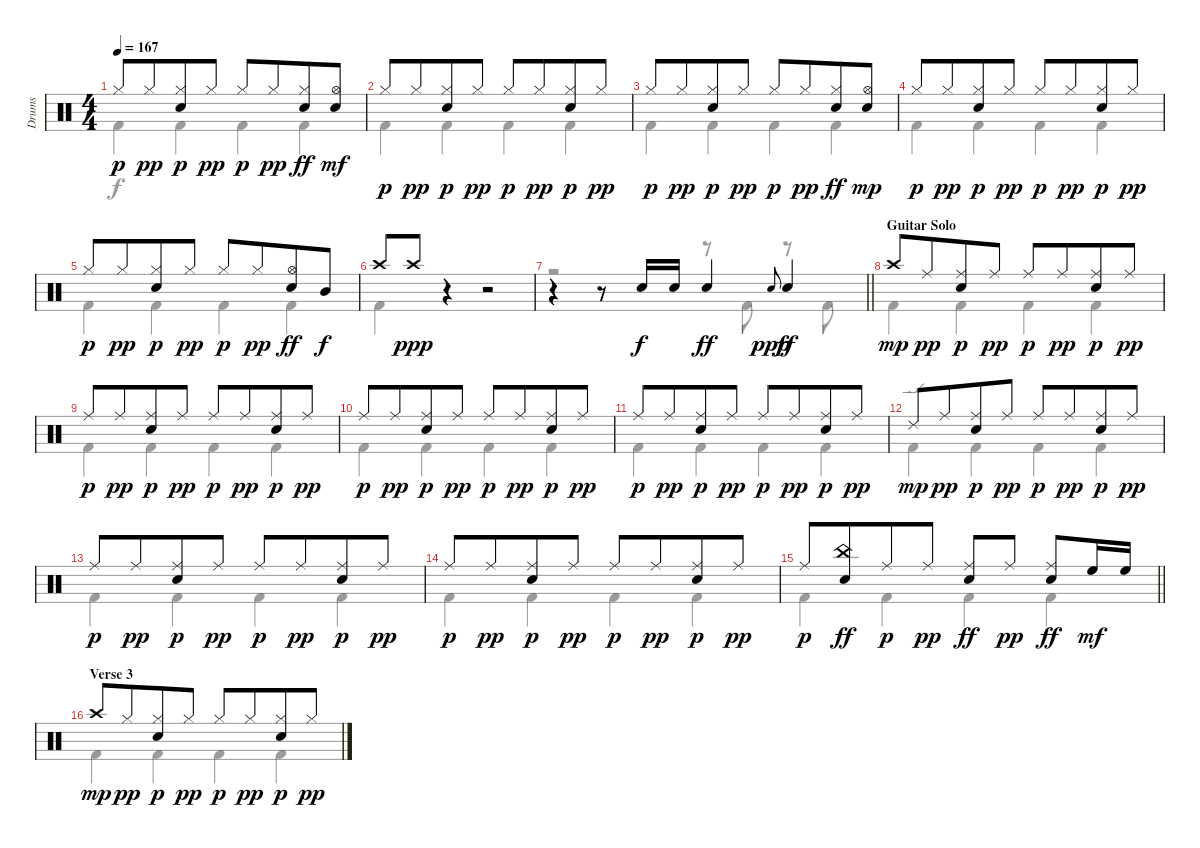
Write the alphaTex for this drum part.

\track ("Drums" "Drums") {instrument percussion}
\staff {score}
\articulation defaults
\voice
\ts (4 4)
\tempo 167
\clef neutral
\ks aminor "Hi-Hat (closed)".8{dy p} "Hi-Hat (closed)".8{dy pp beam merge}
("Hi-Hat (closed)" "Electric Snare (hit)").8{dy p} "Hi-Hat (closed)".8{dy pp} "Hi-Hat (closed)".8{dy p} "Hi-Hat (closed)".8{dy pp beam merge} ("Hi-Hat (closed)" "Electric Snare (hit)").8{dy ff} ("Hi-Hat (open)" "Electric Snare (hit)").8{dy mf} |
"Hi-Hat (closed)".8{dy p} "Hi-Hat (closed)".8{dy pp beam merge} ("Hi-Hat (closed)" "Electric Snare (hit)").8{dy p} "Hi-Hat (closed)".8{dy pp} "Hi-Hat (closed)".8{dy p} "Hi-Hat (closed)".8{dy pp beam merge} ("Hi-Hat (closed)" "Electric Snare (hit)").8{dy p} "Hi-Hat (closed)".8{dy pp} |
"Hi-Hat (closed)".8{dy p} "Hi-Hat (closed)".8{dy pp beam merge} ("Hi-Hat (closed)" "Electric Snare (hit)").8{dy p} "Hi-Hat (closed)".8{dy pp} "Hi-Hat (closed)".8{dy p} "Hi-Hat (closed)".8{dy pp beam merge} ("Hi-Hat (closed)" "Electric Snare (hit)").8{dy ff} ("Hi-Hat (open)" "Electric Snare (hit)").8{dy mp} |
"Hi-Hat (closed)".8{dy p} "Hi-Hat (closed)".8{dy pp beam merge} ("Hi-Hat (closed)" "Electric Snare (hit)").8{dy p} "Hi-Hat (closed)".8{dy pp} "Hi-Hat (closed)".8{dy p} "Hi-Hat (closed)".8{dy pp beam merge} ("Hi-Hat (closed)" "Electric Snare (hit)").8{dy p} "Hi-Hat (closed)".8{dy pp} |
"Hi-Hat (closed)".8{dy p} "Hi-Hat (closed)".8{dy pp beam merge} ("Hi-Hat (closed)" "Electric Snare (hit)").8{dy p} "Hi-Hat (closed)".8{dy pp} "Hi-Hat (closed)".8{dy p} "Hi-Hat (closed)".8{dy pp beam merge} ("Hi-Hat (open)" "Electric Snare (hit)").8{dy ff} "Mid Tom (hit)".8{dy f} |
"Crash high (hit)".8 "Crash high (hit)".8{dy ppp} r.4 r.2 |
\barLineRight lightlight
r.4 r.8 "Electric Snare (hit)".16{dy f} "Electric Snare (hit)".16 "Electric Snare (hit)".4{dy ff} "Electric Snare (hit)".8{gr onbeat dy ppp} "Electric Snare (hit)".4{dy ff} |
\section ("" "Guitar Solo")
"Crash high (hit)".8{dy mp} "Ride (middle)".8{dy pp beam merge} ("Ride (middle)" "Electric Snare (hit)").8{dy p} "Ride (middle)".8{dy pp} "Ride (middle)".8{dy p} "Ride (middle)".8{dy pp beam merge} ("Ride (middle)" "Electric Snare (hit)").8{dy p} "Ride (middle)".8{dy pp} |
"Ride (middle)".8{dy p} "Ride (middle)".8{dy pp beam merge} ("Ride (middle)" "Electric Snare (hit)").8{dy p} "Ride (middle)".8{dy pp} "Ride (middle)".8{dy p} "Ride (middle)".8{dy pp beam merge} ("Ride (middle)" "Electric Snare (hit)").8{dy p} "Ride (middle)".8{dy pp} |
"Ride (middle)".8{dy p} "Ride (middle)".8{dy pp beam merge} ("Ride (middle)" "Electric Snare (hit)").8{dy p} "Ride (middle)".8{dy pp} "Ride (middle)".8{dy p} "Ride (middle)".8{dy pp beam merge} ("Ride (middle)" "Electric Snare (hit)").8{dy p} "Ride (middle)".8{dy pp} |
"Ride (middle)".8{dy p} "Ride (middle)".8{dy pp beam merge} ("Ride (middle)" "Electric Snare (hit)").8{dy p} "Ride (middle)".8{dy pp} "Ride (middle)".8{dy p} "Ride (middle)".8{dy pp beam merge} ("Ride (middle)" "Electric Snare (hit)").8{dy p} "Ride (middle)".8{dy pp} |
"Ride (edge) 2".8{dy mp} "Ride (middle)".8{dy pp beam merge} ("Ride (middle)" "Electric Snare (hit)").8{dy p} "Ride (middle)".8{dy pp} "Ride (middle)".8{dy p} "Ride (middle)".8{dy pp beam merge} ("Ride (middle)" "Electric Snare (hit)").8{dy p} "Ride (middle)".8{dy pp} |
"Ride (middle)".8{dy p} "Ride (middle)".8{dy pp beam merge} ("Ride (middle)" "Electric Snare (hit)").8{dy p} "Ride (middle)".8{dy pp} "Ride (middle)".8{dy p} "Ride (middle)".8{dy pp beam merge} ("Ride (middle)" "Electric Snare (hit)").8{dy p} "Ride (middle)".8{dy pp} |
"Ride (middle)".8{dy p} "Ride (middle)".8{dy pp beam merge} ("Ride (middle)" "Electric Snare (hit)").8{dy p} "Ride (middle)".8{dy pp} "Ride (middle)".8{dy p} "Ride (middle)".8{dy pp beam merge} ("Ride (middle)" "Electric Snare (hit)").8{dy p} "Ride (middle)".8{dy pp} |
\barLineRight lightlight "Ride (middle)".8{dy p}
("China (hit)" "Electric Snare (hit)").8{dy ff beam merge} "Ride (middle)".8{dy p} "Ride (middle)".8{dy pp} ("Ride (middle)" "Electric Snare (hit)").8{dy ff} "Ride (middle)".8{dy pp} ("Ride (middle)" "Electric Snare (hit)").8{dy ff} "High Floor Tom (hit)".16{dy mf} "High Floor Tom (hit)".16 |
\section ("" "Verse 3")
"Crash high (hit)".8{dy mp} "Hi-Hat (closed)".8{dy pp beam merge} ("Hi-Hat (closed)" "Electric Snare (hit)").8{dy p} "Hi-Hat (closed)".8{dy pp} "Hi-Hat (closed)".8{dy p} "Hi-Hat (closed)".8{dy pp beam merge} ("Hi-Hat (closed)" "Electric Snare (hit)").8{dy p} "Hi-Hat (closed)".8{dy pp}
\voice
\clef neutral
\ottava regular
\simile none
\ks aminor "Kick (hit) 2".4{dy f} "Kick (hit) 2".4 "Kick (hit) 2".4 "Kick (hit) 2".4
|
"Kick (hit) 2".4 "Kick (hit) 2".4 "Kick (hit) 2".4 "Kick (hit) 2".4 |
"Kick (hit) 2".4 "Kick (hit) 2".4 "Kick (hit) 2".4 "Kick (hit) 2".4 |
"Kick (hit) 2".4 "Kick (hit) 2".4 "Kick (hit) 2".4 "Kick (hit) 2".4 |
"Kick (hit) 2".4 "Kick (hit) 2".4 "Kick (hit) 2".4 "Kick (hit) 2".4 |
"Kick (hit) 2".4 r.4 r.2 |
\barLineRight lightlight
r.2 r.8 "Kick (hit) 2".8 r.8 "Kick (hit) 2".8 |
"Kick (hit) 2".4 "Kick (hit) 2".4 "Kick (hit) 2".4 "Kick (hit) 2".4 |
"Kick (hit) 2".4 "Kick (hit) 2".4 "Kick (hit) 2".4 "Kick (hit) 2".4 |
"Kick (hit) 2".4 "Kick (hit) 2".4 "Kick (hit) 2".4 "Kick (hit) 2".4 |
"Kick (hit) 2".4 "Kick (hit) 2".4 "Kick (hit) 2".4 "Kick (hit) 2".4 |
"Kick (hit) 2".4 "Kick (hit) 2".4 "Kick (hit) 2".4 "Kick (hit) 2".4 |
"Kick (hit) 2".4 "Kick (hit) 2".4 "Kick (hit) 2".4 "Kick (hit) 2".4 |
"Kick (hit) 2".4 "Kick (hit) 2".4 "Kick (hit) 2".4 "Kick (hit) 2".4 |
\barLineRight lightlight "Kick (hit) 2".4 "Kick (hit) 2".4 "Kick (hit) 2".4 "Kick (hit) 2".4
|
"Kick (hit) 2".4 "Kick (hit) 2".4 "Kick (hit) 2".4 "Kick (hit) 2".4
